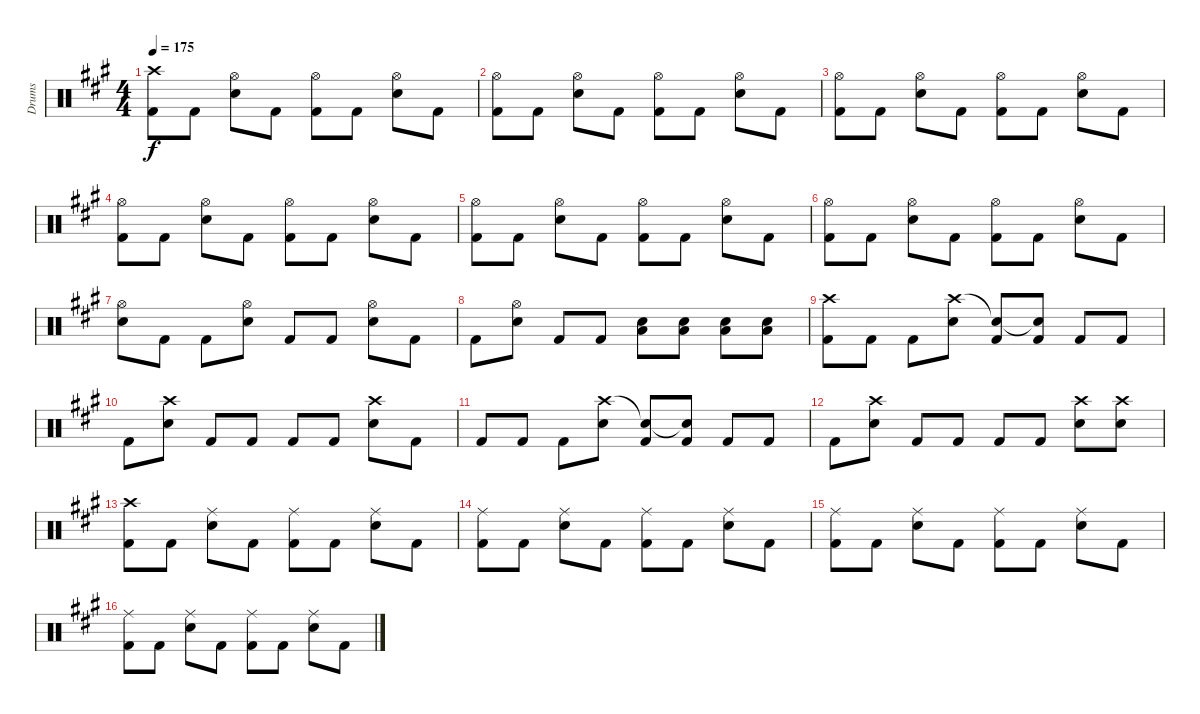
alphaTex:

\track ("Drums" "Drums") {instrument percussion}
\staff {score}
\articulation defaults
\ts (4 4)
\tempo 175
\clef neutral
\ks a
("Crash high (hit)" "Kick (hit) 2").8{dy f} "Kick (hit) 2".8 ("Hi-Hat (open)" "Snare (hit) 2").8 "Kick (hit) 2".8 ("Hi-Hat (open)" "Kick (hit) 2").8 "Kick (hit) 2".8 ("Hi-Hat (open)" "Snare (hit) 2").8 "Kick (hit) 2".8 |
("Hi-Hat (open)" "Kick (hit) 2").8 "Kick (hit) 2".8 ("Hi-Hat (open)" "Snare (hit) 2").8 "Kick (hit) 2".8 ("Hi-Hat (open)" "Kick (hit) 2").8 "Kick (hit) 2".8 ("Hi-Hat (open)" "Snare (hit) 2").8 "Kick (hit) 2".8 |
("Hi-Hat (open)" "Kick (hit) 2").8 "Kick (hit) 2".8 ("Hi-Hat (open)" "Snare (hit) 2").8 "Kick (hit) 2".8 ("Hi-Hat (open)" "Kick (hit) 2").8 "Kick (hit) 2".8 ("Hi-Hat (open)" "Snare (hit) 2").8 "Kick (hit) 2".8 |
("Hi-Hat (open)" "Kick (hit) 2").8 "Kick (hit) 2".8 ("Hi-Hat (open)" "Snare (hit) 2").8 "Kick (hit) 2".8 ("Hi-Hat (open)" "Kick (hit) 2").8 "Kick (hit) 2".8 ("Hi-Hat (open)" "Snare (hit) 2").8 "Kick (hit) 2".8 |
("Hi-Hat (open)" "Kick (hit) 2").8 "Kick (hit) 2".8 ("Hi-Hat (open)" "Snare (hit) 2").8 "Kick (hit) 2".8 ("Hi-Hat (open)" "Kick (hit) 2").8 "Kick (hit) 2".8 ("Hi-Hat (open)" "Snare (hit) 2").8 "Kick (hit) 2".8 |
("Hi-Hat (open)" "Kick (hit) 2").8 "Kick (hit) 2".8 ("Hi-Hat (open)" "Snare (hit) 2").8 "Kick (hit) 2".8 ("Hi-Hat (open)" "Kick (hit) 2").8 "Kick (hit) 2".8 ("Hi-Hat (open)" "Snare (hit) 2").8 "Kick (hit) 2".8 |
("Hi-Hat (open)" "Snare (hit) 2").8 "Kick (hit) 2".8 "Kick (hit) 2".8 ("Hi-Hat (open)" "Snare (hit) 2").8 "Kick (hit) 2".8 "Kick (hit) 2".8 ("Hi-Hat (open)" "Snare (hit) 2").8 "Kick (hit) 2".8 |
"Kick (hit) 2".8 ("Hi-Hat (open)" "Snare (hit) 2").8 "Kick (hit) 2".8 "Kick (hit) 2".8 ("Snare (hit) 2" "Low Floor Tom (hit)").8 ("Snare (hit) 2" "Low Floor Tom (hit)").8 ("Snare (hit) 2" "Low Floor Tom (hit)").8 ("Snare (hit) 2" "Low Floor Tom (hit)").8 |
("Crash high (hit)" "Kick (hit) 2").8 "Kick (hit) 2".8 "Kick (hit) 2".8 ("Crash high (hit)" "Snare (hit) 2").8 ("Snare (hit)"{t} "Kick (hit) 2").8 ("Snare (hit)"{t} "Kick (hit) 2").8 "Kick (hit) 2".8 "Kick (hit) 2".8 |
"Kick (hit) 2".8 ("Crash high (hit)" "Snare (hit) 2").8 "Kick (hit) 2".8 "Kick (hit) 2".8 "Kick (hit) 2".8 "Kick (hit) 2".8 ("Crash high (hit)" "Snare (hit) 2").8 "Kick (hit) 2".8 |
"Kick (hit) 2".8 "Kick (hit) 2".8 "Kick (hit) 2".8 ("Crash high (hit)" "Snare (hit) 2").8 ("Snare (hit)"{t} "Kick (hit) 2").8 ("Snare (hit)"{t} "Kick (hit) 2").8 "Kick (hit) 2".8 "Kick (hit) 2".8 |
"Kick (hit) 2".8 ("Crash high (hit)" "Snare (hit) 2").8 "Kick (hit) 2".8 "Kick (hit) 2".8 "Kick (hit) 2".8 "Kick (hit) 2".8 ("Crash high (hit)" "Snare (hit) 2").8 ("Crash high (hit)" "Snare (hit) 2").8 |
("Crash high (hit)" "Kick (hit) 2").8 "Kick (hit) 2".8 ("Ride (middle)" "Snare (hit) 2").8 "Kick (hit) 2".8 ("Ride (middle)" "Kick (hit) 2").8 "Kick (hit) 2".8 ("Ride (middle)" "Snare (hit) 2").8 "Kick (hit) 2".8 |
("Ride (middle)" "Kick (hit) 2").8 "Kick (hit) 2".8 ("Ride (middle)" "Snare (hit) 2").8 "Kick (hit) 2".8 ("Ride (middle)" "Kick (hit) 2").8 "Kick (hit) 2".8 ("Ride (middle)" "Snare (hit) 2").8 "Kick (hit) 2".8 |
("Ride (middle)" "Kick (hit) 2").8 "Kick (hit) 2".8 ("Ride (middle)" "Snare (hit) 2").8 "Kick (hit) 2".8 ("Ride (middle)" "Kick (hit) 2").8 "Kick (hit) 2".8 ("Ride (middle)" "Snare (hit) 2").8 "Kick (hit) 2".8 |
("Ride (middle)" "Kick (hit) 2").8 "Kick (hit) 2".8 ("Ride (middle)" "Snare (hit) 2").8 "Kick (hit) 2".8 ("Ride (middle)" "Kick (hit) 2").8 "Kick (hit) 2".8 ("Ride (middle)" "Snare (hit) 2").8 "Kick (hit) 2".8
